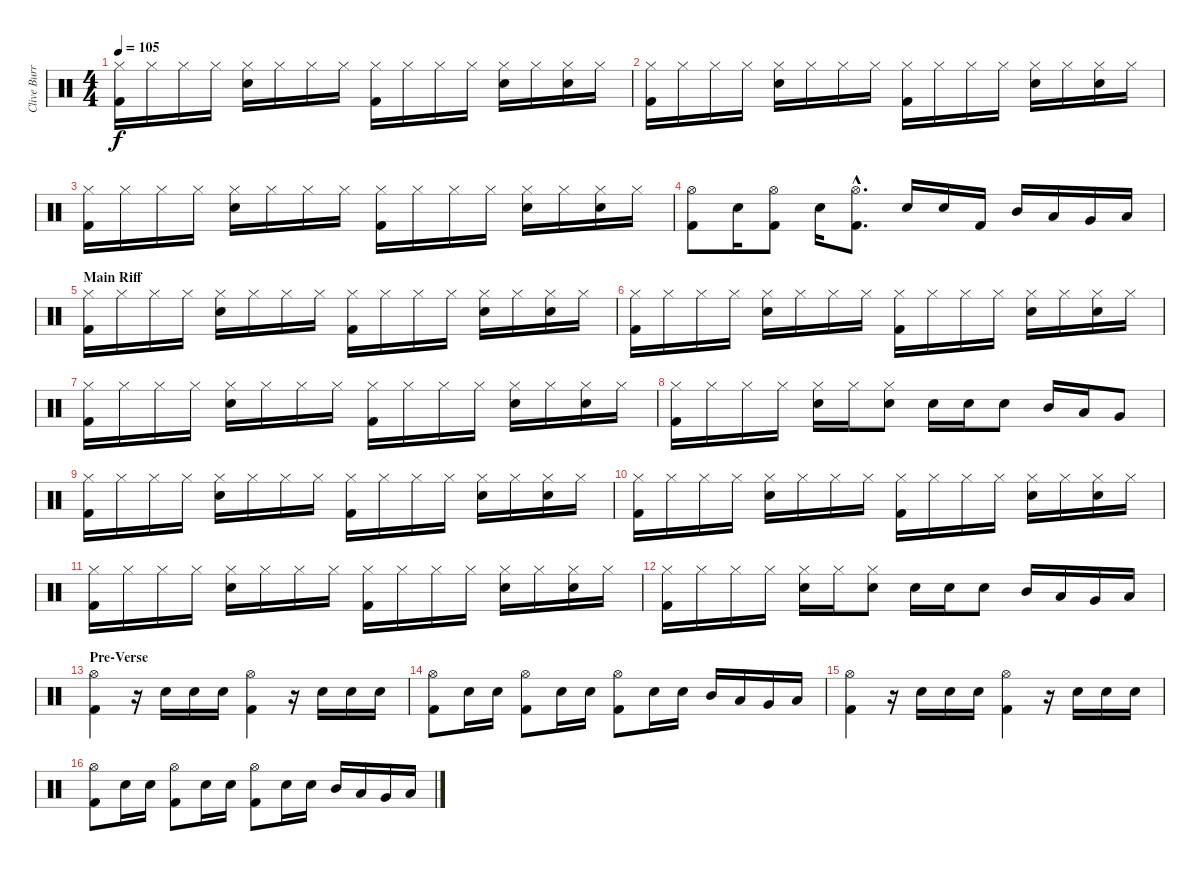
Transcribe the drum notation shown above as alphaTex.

\track ("Clive Burr (Drums)" "Clive Burr") {instrument percussion}
\staff {score}
\articulation defaults
\ts (4 4)
\tempo 105
\clef neutral
\ks c
("Hi-Hat (closed)" "Kick (hit) 2").16{dy f} "Hi-Hat (closed)".16 "Hi-Hat (closed)".16 "Hi-Hat (closed)".16 ("Electric Snare (hit)" "Hi-Hat (closed)").16 "Hi-Hat (closed)".16 "Hi-Hat (closed)".16 "Hi-Hat (closed)".16 ("Hi-Hat (closed)" "Kick (hit) 2").16 "Hi-Hat (closed)".16 "Hi-Hat (closed)".16 "Hi-Hat (closed)".16 ("Electric Snare (hit)" "Hi-Hat (closed)").16 "Hi-Hat (closed)".16 ("Electric Snare (hit)" "Hi-Hat (closed)").16 "Hi-Hat (closed)".16 |
("Hi-Hat (closed)" "Kick (hit) 2").16 "Hi-Hat (closed)".16 "Hi-Hat (closed)".16 "Hi-Hat (closed)".16 ("Electric Snare (hit)" "Hi-Hat (closed)").16 "Hi-Hat (closed)".16 "Hi-Hat (closed)".16 "Hi-Hat (closed)".16 ("Hi-Hat (closed)" "Kick (hit) 2").16 "Hi-Hat (closed)".16 "Hi-Hat (closed)".16 "Hi-Hat (closed)".16 ("Electric Snare (hit)" "Hi-Hat (closed)").16 "Hi-Hat (closed)".16 ("Electric Snare (hit)" "Hi-Hat (closed)").16 "Hi-Hat (closed)".16 |
("Hi-Hat (closed)" "Kick (hit) 2").16 "Hi-Hat (closed)".16 "Hi-Hat (closed)".16 "Hi-Hat (closed)".16 ("Electric Snare (hit)" "Hi-Hat (closed)").16 "Hi-Hat (closed)".16 "Hi-Hat (closed)".16 "Hi-Hat (closed)".16 ("Hi-Hat (closed)" "Kick (hit) 2").16 "Hi-Hat (closed)".16 "Hi-Hat (closed)".16 "Hi-Hat (closed)".16 ("Electric Snare (hit)" "Hi-Hat (closed)").16 "Hi-Hat (closed)".16 ("Electric Snare (hit)" "Hi-Hat (closed)").16 "Hi-Hat (closed)".16 |
("Hi-Hat (open)" "Kick (hit) 2").8 "Electric Snare (hit)".16 ("Hi-Hat (open)" "Kick (hit) 2").8 "Electric Snare (hit)".16 ("Hi-Hat (open)"{hac} "Kick (hit) 2"{hac}).8{d} "Electric Snare (hit)".16 "Electric Snare (hit)".16 "Kick (hit) 2".16 "Mid Tom (hit)".16 "Low Tom (hit)".16 "Very Low Tom (hit)".16 "Low Tom (hit)".16 |
\section ("" "Main Riff")
("Hi-Hat (closed)" "Kick (hit) 2").16 "Hi-Hat (closed)".16 "Hi-Hat (closed)".16 "Hi-Hat (closed)".16 ("Electric Snare (hit)" "Hi-Hat (closed)").16 "Hi-Hat (closed)".16 "Hi-Hat (closed)".16 "Hi-Hat (closed)".16 ("Hi-Hat (closed)" "Kick (hit) 2").16 "Hi-Hat (closed)".16 "Hi-Hat (closed)".16 "Hi-Hat (closed)".16 ("Electric Snare (hit)" "Hi-Hat (closed)").16 "Hi-Hat (closed)".16 ("Electric Snare (hit)" "Hi-Hat (closed)").16 "Hi-Hat (closed)".16 |
("Hi-Hat (closed)" "Kick (hit) 2").16 "Hi-Hat (closed)".16 "Hi-Hat (closed)".16 "Hi-Hat (closed)".16 ("Electric Snare (hit)" "Hi-Hat (closed)").16 "Hi-Hat (closed)".16 "Hi-Hat (closed)".16 "Hi-Hat (closed)".16 ("Hi-Hat (closed)" "Kick (hit) 2").16 "Hi-Hat (closed)".16 "Hi-Hat (closed)".16 "Hi-Hat (closed)".16 ("Electric Snare (hit)" "Hi-Hat (closed)").16 "Hi-Hat (closed)".16 ("Electric Snare (hit)" "Hi-Hat (closed)").16 "Hi-Hat (closed)".16 |
("Hi-Hat (closed)" "Kick (hit) 2").16 "Hi-Hat (closed)".16 "Hi-Hat (closed)".16 "Hi-Hat (closed)".16 ("Electric Snare (hit)" "Hi-Hat (closed)").16 "Hi-Hat (closed)".16 "Hi-Hat (closed)".16 "Hi-Hat (closed)".16 ("Hi-Hat (closed)" "Kick (hit) 2").16 "Hi-Hat (closed)".16 "Hi-Hat (closed)".16 "Hi-Hat (closed)".16 ("Electric Snare (hit)" "Hi-Hat (closed)").16 "Hi-Hat (closed)".16 ("Electric Snare (hit)" "Hi-Hat (closed)").16 "Hi-Hat (closed)".16 |
("Hi-Hat (closed)" "Kick (hit) 2").16 "Hi-Hat (closed)".16 "Hi-Hat (closed)".16 "Hi-Hat (closed)".16 ("Electric Snare (hit)" "Hi-Hat (closed)").16 "Hi-Hat (closed)".16 ("Electric Snare (hit)" "Hi-Hat (closed)").8 "Electric Snare (hit)".16 "Electric Snare (hit)".16 "Electric Snare (hit)".8 "Mid Tom (hit)".16 "Low Tom (hit)".16 "Very Low Tom (hit)".8 |
("Hi-Hat (closed)" "Kick (hit) 2").16 "Hi-Hat (closed)".16 "Hi-Hat (closed)".16 "Hi-Hat (closed)".16 ("Electric Snare (hit)" "Hi-Hat (closed)").16 "Hi-Hat (closed)".16 "Hi-Hat (closed)".16 "Hi-Hat (closed)".16 ("Hi-Hat (closed)" "Kick (hit) 2").16 "Hi-Hat (closed)".16 "Hi-Hat (closed)".16 "Hi-Hat (closed)".16 ("Electric Snare (hit)" "Hi-Hat (closed)").16 "Hi-Hat (closed)".16 ("Electric Snare (hit)" "Hi-Hat (closed)").16 "Hi-Hat (closed)".16 |
("Hi-Hat (closed)" "Kick (hit) 2").16 "Hi-Hat (closed)".16 "Hi-Hat (closed)".16 "Hi-Hat (closed)".16 ("Electric Snare (hit)" "Hi-Hat (closed)").16 "Hi-Hat (closed)".16 "Hi-Hat (closed)".16 "Hi-Hat (closed)".16 ("Hi-Hat (closed)" "Kick (hit) 2").16 "Hi-Hat (closed)".16 "Hi-Hat (closed)".16 "Hi-Hat (closed)".16 ("Electric Snare (hit)" "Hi-Hat (closed)").16 "Hi-Hat (closed)".16 ("Electric Snare (hit)" "Hi-Hat (closed)").16 "Hi-Hat (closed)".16 |
("Hi-Hat (closed)" "Kick (hit) 2").16 "Hi-Hat (closed)".16 "Hi-Hat (closed)".16 "Hi-Hat (closed)".16 ("Electric Snare (hit)" "Hi-Hat (closed)").16 "Hi-Hat (closed)".16 "Hi-Hat (closed)".16 "Hi-Hat (closed)".16 ("Hi-Hat (closed)" "Kick (hit) 2").16 "Hi-Hat (closed)".16 "Hi-Hat (closed)".16 "Hi-Hat (closed)".16 ("Electric Snare (hit)" "Hi-Hat (closed)").16 "Hi-Hat (closed)".16 ("Electric Snare (hit)" "Hi-Hat (closed)").16 "Hi-Hat (closed)".16 |
("Hi-Hat (closed)" "Kick (hit) 2").16 "Hi-Hat (closed)".16 "Hi-Hat (closed)".16 "Hi-Hat (closed)".16 ("Electric Snare (hit)" "Hi-Hat (closed)").16 "Hi-Hat (closed)".16 ("Electric Snare (hit)" "Hi-Hat (closed)").8 "Electric Snare (hit)".16 "Electric Snare (hit)".16 "Electric Snare (hit)".8 "Mid Tom (hit)".16 "Low Tom (hit)".16 "Very Low Tom (hit)".16 "Low Tom (hit)".16 |
\section ("" "Pre-Verse")
("Hi-Hat (open)" "Kick (hit) 2").4 r.16 "Electric Snare (hit)".16 "Electric Snare (hit)".16 "Electric Snare (hit)".16 ("Hi-Hat (open)" "Kick (hit) 2").4 r.16 "Electric Snare (hit)".16 "Electric Snare (hit)".16 "Electric Snare (hit)".16 |
("Hi-Hat (open)" "Kick (hit) 2").8 "Electric Snare (hit)".16 "Electric Snare (hit)".16 ("Hi-Hat (open)" "Kick (hit) 2").8 "Electric Snare (hit)".16 "Electric Snare (hit)".16 ("Hi-Hat (open)" "Kick (hit) 2").8 "Electric Snare (hit)".16 "Electric Snare (hit)".16 "Mid Tom (hit)".16 "Low Tom (hit)".16 "Very Low Tom (hit)".16 "Low Tom (hit)".16 |
("Hi-Hat (open)" "Kick (hit) 2").4 r.16 "Electric Snare (hit)".16 "Electric Snare (hit)".16 "Electric Snare (hit)".16 ("Hi-Hat (open)" "Kick (hit) 2").4 r.16 "Electric Snare (hit)".16 "Electric Snare (hit)".16 "Electric Snare (hit)".16 |
("Hi-Hat (open)" "Kick (hit) 2").8 "Electric Snare (hit)".16 "Electric Snare (hit)".16 ("Hi-Hat (open)" "Kick (hit) 2").8 "Electric Snare (hit)".16 "Electric Snare (hit)".16 ("Hi-Hat (open)" "Kick (hit) 2").8 "Electric Snare (hit)".16 "Electric Snare (hit)".16 "Mid Tom (hit)".16 "Low Tom (hit)".16 "Very Low Tom (hit)".16 "Low Tom (hit)".16
